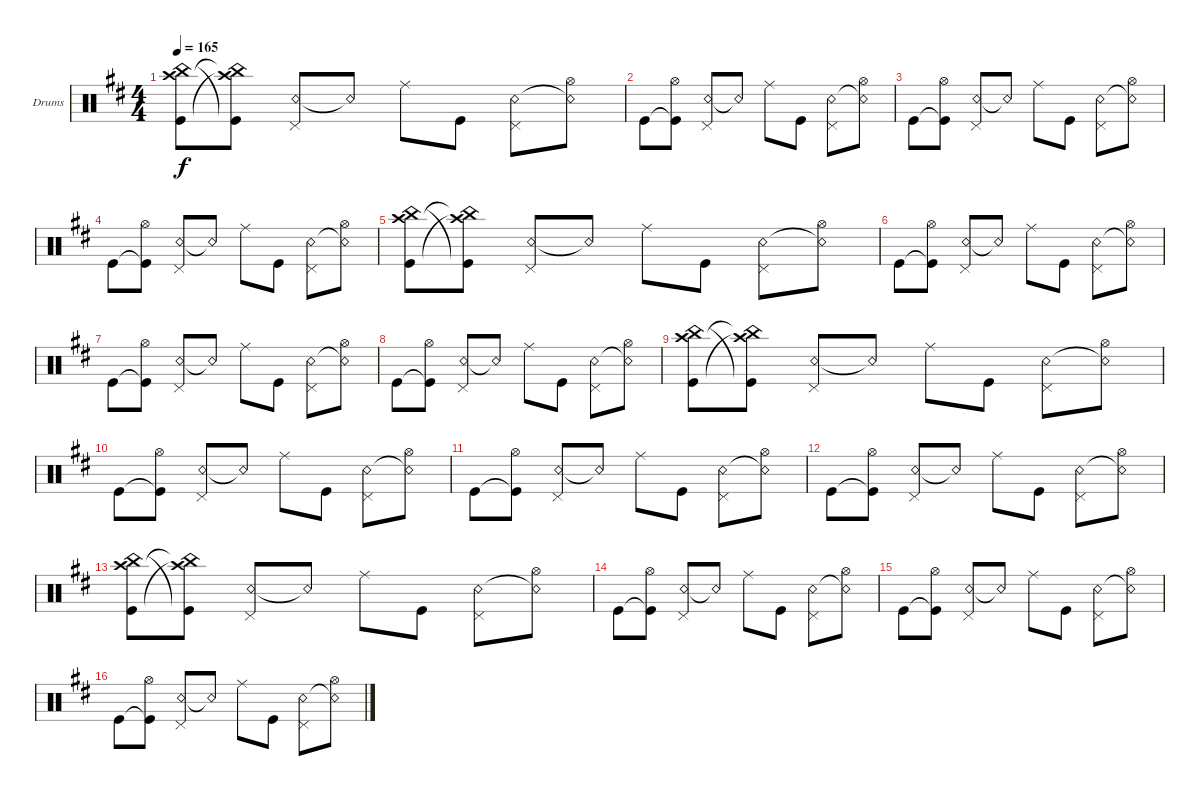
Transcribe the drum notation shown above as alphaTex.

\defaultSystemsLayout 4
\bracketExtendMode groupsimilarinstruments
\firstSystemTrackNameOrientation horizontal
\otherSystemsTrackNameOrientation horizontal
\track ("Bateria" "Drums") {multiBarRest instrument percussion}
\staff {score}
\articulation defaults
\ts (4 4)
\tempo 165
\clef neutral
\ks d
("China (hit)" "Crash high (hit)" "Kick (hit)").8{dy f} ("Kick (hit)"{t} "China (hit)"{t} "Crash high (hit)"{t}).8 ("Snare (rim shot)" "Pedal Hi-Hat (hit)").8 "Snare (rim shot)"{t}.8 "Ride (middle)".8 "Kick (hit)".8 ("Snare (rim shot)" "Pedal Hi-Hat (hit)").8 ("Snare (rim shot)"{t} "Hi-Hat (open)").8 |
"Kick (hit)".8 ("Kick (hit)"{t} "Hi-Hat (open)").8 ("Snare (rim shot)" "Pedal Hi-Hat (hit)").8 "Snare (rim shot)"{t}.8 "Ride (middle)".8 "Kick (hit)".8 ("Snare (rim shot)" "Pedal Hi-Hat (hit)").8 ("Snare (rim shot)"{t} "Hi-Hat (open)").8 |
"Kick (hit)".8 ("Kick (hit)"{t} "Hi-Hat (open)").8 ("Snare (rim shot)" "Pedal Hi-Hat (hit)").8 "Snare (rim shot)"{t}.8 "Ride (middle)".8 "Kick (hit)".8 ("Snare (rim shot)" "Pedal Hi-Hat (hit)").8 ("Snare (rim shot)"{t} "Hi-Hat (open)").8 |
"Kick (hit)".8 ("Kick (hit)"{t} "Hi-Hat (open)").8 ("Snare (rim shot)" "Pedal Hi-Hat (hit)").8 "Snare (rim shot)"{t}.8 "Ride (middle)".8 "Kick (hit)".8 ("Snare (rim shot)" "Pedal Hi-Hat (hit)").8 ("Snare (rim shot)"{t} "Hi-Hat (open)").8 |
("China (hit)" "Crash high (hit)" "Kick (hit)").8 ("Kick (hit)"{t} "China (hit)"{t} "Crash high (hit)"{t}).8 ("Snare (rim shot)" "Pedal Hi-Hat (hit)").8 "Snare (rim shot)"{t}.8 "Ride (middle)".8 "Kick (hit)".8 ("Snare (rim shot)" "Pedal Hi-Hat (hit)").8 ("Snare (rim shot)"{t} "Hi-Hat (open)").8 |
"Kick (hit)".8 ("Kick (hit)"{t} "Hi-Hat (open)").8 ("Snare (rim shot)" "Pedal Hi-Hat (hit)").8 "Snare (rim shot)"{t}.8 "Ride (middle)".8 "Kick (hit)".8 ("Snare (rim shot)" "Pedal Hi-Hat (hit)").8 ("Snare (rim shot)"{t} "Hi-Hat (open)").8 |
"Kick (hit)".8 ("Kick (hit)"{t} "Hi-Hat (open)").8 ("Snare (rim shot)" "Pedal Hi-Hat (hit)").8 "Snare (rim shot)"{t}.8 "Ride (middle)".8 "Kick (hit)".8 ("Snare (rim shot)" "Pedal Hi-Hat (hit)").8 ("Snare (rim shot)"{t} "Hi-Hat (open)").8 |
"Kick (hit)".8 ("Kick (hit)"{t} "Hi-Hat (open)").8 ("Snare (rim shot)" "Pedal Hi-Hat (hit)").8 "Snare (rim shot)"{t}.8 "Ride (middle)".8 "Kick (hit)".8 ("Snare (rim shot)" "Pedal Hi-Hat (hit)").8 ("Snare (rim shot)"{t} "Hi-Hat (open)").8 |
("China (hit)" "Crash high (hit)" "Kick (hit)").8 ("Kick (hit)"{t} "China (hit)"{t} "Crash high (hit)"{t}).8 ("Snare (rim shot)" "Pedal Hi-Hat (hit)").8 "Snare (rim shot)"{t}.8 "Ride (middle)".8 "Kick (hit)".8 ("Snare (rim shot)" "Pedal Hi-Hat (hit)").8 ("Snare (rim shot)"{t} "Hi-Hat (open)").8 |
"Kick (hit)".8 ("Kick (hit)"{t} "Hi-Hat (open)").8 ("Snare (rim shot)" "Pedal Hi-Hat (hit)").8 "Snare (rim shot)"{t}.8 "Ride (middle)".8 "Kick (hit)".8 ("Snare (rim shot)" "Pedal Hi-Hat (hit)").8 ("Snare (rim shot)"{t} "Hi-Hat (open)").8 |
"Kick (hit)".8 ("Kick (hit)"{t} "Hi-Hat (open)").8 ("Snare (rim shot)" "Pedal Hi-Hat (hit)").8 "Snare (rim shot)"{t}.8 "Ride (middle)".8 "Kick (hit)".8 ("Snare (rim shot)" "Pedal Hi-Hat (hit)").8 ("Snare (rim shot)"{t} "Hi-Hat (open)").8 |
"Kick (hit)".8 ("Kick (hit)"{t} "Hi-Hat (open)").8 ("Snare (rim shot)" "Pedal Hi-Hat (hit)").8 "Snare (rim shot)"{t}.8 "Ride (middle)".8 "Kick (hit)".8 ("Snare (rim shot)" "Pedal Hi-Hat (hit)").8 ("Snare (rim shot)"{t} "Hi-Hat (open)").8 |
("China (hit)" "Crash high (hit)" "Kick (hit)").8 ("Kick (hit)"{t} "China (hit)"{t} "Crash high (hit)"{t}).8 ("Snare (rim shot)" "Pedal Hi-Hat (hit)").8 "Snare (rim shot)"{t}.8 "Ride (middle)".8 "Kick (hit)".8 ("Snare (rim shot)" "Pedal Hi-Hat (hit)").8 ("Snare (rim shot)"{t} "Hi-Hat (open)").8 |
"Kick (hit)".8 ("Kick (hit)"{t} "Hi-Hat (open)").8 ("Snare (rim shot)" "Pedal Hi-Hat (hit)").8 "Snare (rim shot)"{t}.8 "Ride (middle)".8 "Kick (hit)".8 ("Snare (rim shot)" "Pedal Hi-Hat (hit)").8 ("Snare (rim shot)"{t} "Hi-Hat (open)").8 |
"Kick (hit)".8 ("Kick (hit)"{t} "Hi-Hat (open)").8 ("Snare (rim shot)" "Pedal Hi-Hat (hit)").8 "Snare (rim shot)"{t}.8 "Ride (middle)".8 "Kick (hit)".8 ("Snare (rim shot)" "Pedal Hi-Hat (hit)").8 ("Snare (rim shot)"{t} "Hi-Hat (open)").8 |
"Kick (hit)".8 ("Kick (hit)"{t} "Hi-Hat (open)").8 ("Snare (rim shot)" "Pedal Hi-Hat (hit)").8 "Snare (rim shot)"{t}.8 "Ride (middle)".8 "Kick (hit)".8 ("Snare (rim shot)" "Pedal Hi-Hat (hit)").8 ("Snare (rim shot)"{t} "Hi-Hat (open)").8
